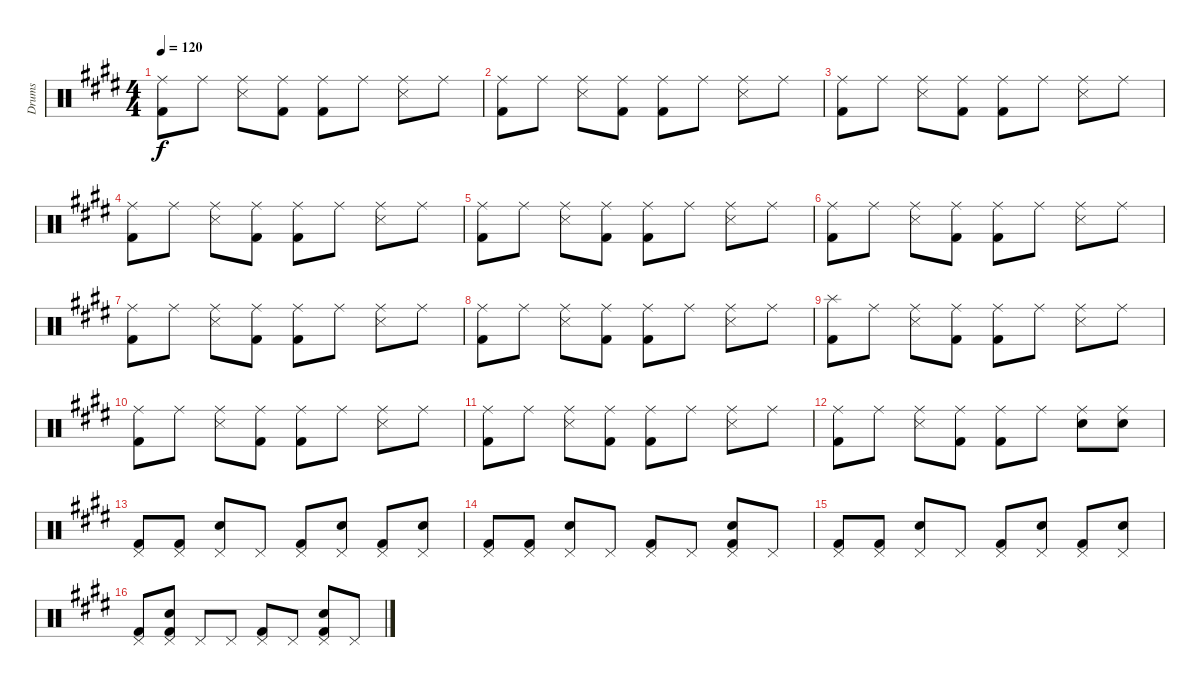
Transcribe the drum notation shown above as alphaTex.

\track ("Drums" "Drums") {instrument percussion}
\staff {score}
\articulation defaults
\ts (4 4)
\tempo 120
\clef neutral
\ks e
("Ride (middle)" "Kick (hit) 2").8{dy f} "Ride (middle)".8 ("Ride (middle)" "Snare (side stick) 3").8 ("Ride (middle)" "Kick (hit) 2").8 ("Ride (middle)" "Kick (hit) 2").8 "Ride (middle)".8 ("Ride (middle)" "Snare (side stick) 3").8 "Ride (middle)".8 |
("Ride (middle)" "Kick (hit) 2").8 "Ride (middle)".8 ("Ride (middle)" "Snare (side stick) 3").8 ("Ride (middle)" "Kick (hit) 2").8 ("Ride (middle)" "Kick (hit) 2").8 "Ride (middle)".8 ("Ride (middle)" "Snare (side stick) 3").8 "Ride (middle)".8 |
("Ride (middle)" "Kick (hit) 2").8 "Ride (middle)".8 ("Ride (middle)" "Snare (side stick) 3").8 ("Ride (middle)" "Kick (hit) 2").8 ("Ride (middle)" "Kick (hit) 2").8 "Ride (middle)".8 ("Ride (middle)" "Snare (side stick) 3").8 "Ride (middle)".8 |
("Ride (middle)" "Kick (hit) 2").8 "Ride (middle)".8 ("Ride (middle)" "Snare (side stick) 3").8 ("Ride (middle)" "Kick (hit) 2").8 ("Ride (middle)" "Kick (hit) 2").8 "Ride (middle)".8 ("Ride (middle)" "Snare (side stick) 3").8 "Ride (middle)".8 |
("Ride (middle)" "Kick (hit) 2").8 "Ride (middle)".8 ("Ride (middle)" "Snare (side stick) 3").8 ("Ride (middle)" "Kick (hit) 2").8 ("Ride (middle)" "Kick (hit) 2").8 "Ride (middle)".8 ("Ride (middle)" "Snare (side stick) 3").8 "Ride (middle)".8 |
("Ride (middle)" "Kick (hit) 2").8 "Ride (middle)".8 ("Ride (middle)" "Snare (side stick) 3").8 ("Ride (middle)" "Kick (hit) 2").8 ("Ride (middle)" "Kick (hit) 2").8 "Ride (middle)".8 ("Ride (middle)" "Snare (side stick) 3").8 "Ride (middle)".8 |
("Ride (middle)" "Kick (hit) 2").8 "Ride (middle)".8 ("Ride (middle)" "Snare (side stick) 3").8 ("Ride (middle)" "Kick (hit) 2").8 ("Ride (middle)" "Kick (hit) 2").8 "Ride (middle)".8 ("Ride (middle)" "Snare (side stick) 3").8 "Ride (middle)".8 |
("Ride (middle)" "Kick (hit) 2").8 "Ride (middle)".8 ("Ride (middle)" "Snare (side stick) 3").8 ("Ride (middle)" "Kick (hit) 2").8 ("Ride (middle)" "Kick (hit) 2").8 "Ride (middle)".8 ("Ride (middle)" "Snare (side stick) 3").8 "Ride (middle)".8 |
("Splash (hit)" "Kick (hit) 2").8 "Ride (middle)".8 ("Ride (middle)" "Snare (side stick) 3").8 ("Ride (middle)" "Kick (hit) 2").8 ("Ride (middle)" "Kick (hit) 2").8 "Ride (middle)".8 ("Ride (middle)" "Snare (side stick) 3").8 "Ride (middle)".8 |
("Ride (middle)" "Kick (hit) 2").8 "Ride (middle)".8 ("Ride (middle)" "Snare (side stick) 3").8 ("Ride (middle)" "Kick (hit) 2").8 ("Ride (middle)" "Kick (hit) 2").8 "Ride (middle)".8 ("Ride (middle)" "Snare (side stick) 3").8 "Ride (middle)".8 |
("Ride (middle)" "Kick (hit) 2").8 "Ride (middle)".8 ("Ride (middle)" "Snare (side stick) 3").8 ("Ride (middle)" "Kick (hit) 2").8 ("Ride (middle)" "Kick (hit) 2").8 "Ride (middle)".8 ("Ride (middle)" "Snare (side stick) 3").8 "Ride (middle)".8 |
("Ride (middle)" "Kick (hit) 2").8 "Ride (middle)".8 ("Ride (middle)" "Snare (side stick) 3").8 ("Ride (middle)" "Kick (hit) 2").8 ("Ride (middle)" "Kick (hit) 2").8 "Ride (middle)".8 ("Ride (middle)" "Snare (hit) 2").8 ("Ride (middle)" "Snare (hit) 2").8 |
("Pedal Hi-Hat (hit)" "Kick (hit) 2").8 ("Pedal Hi-Hat (hit)" "Kick (hit) 2").8 ("Pedal Hi-Hat (hit)" "Snare (hit) 2").8 "Pedal Hi-Hat (hit)".8 ("Pedal Hi-Hat (hit)" "Kick (hit) 2").8 ("Pedal Hi-Hat (hit)" "Snare (hit) 2").8 ("Pedal Hi-Hat (hit)" "Kick (hit) 2").8 ("Pedal Hi-Hat (hit)" "Snare (hit) 2").8 |
("Pedal Hi-Hat (hit)" "Kick (hit) 2").8 ("Pedal Hi-Hat (hit)" "Kick (hit) 2").8 ("Pedal Hi-Hat (hit)" "Snare (hit) 2").8 "Pedal Hi-Hat (hit)".8 ("Pedal Hi-Hat (hit)" "Kick (hit) 2").8 "Pedal Hi-Hat (hit)".8 ("Pedal Hi-Hat (hit)" "Snare (hit) 2" "Kick (hit) 2").8 "Pedal Hi-Hat (hit)".8 |
("Pedal Hi-Hat (hit)" "Kick (hit) 2").8 ("Pedal Hi-Hat (hit)" "Kick (hit) 2").8 ("Pedal Hi-Hat (hit)" "Snare (hit) 2").8 "Pedal Hi-Hat (hit)".8 ("Pedal Hi-Hat (hit)" "Kick (hit) 2").8 ("Pedal Hi-Hat (hit)" "Snare (hit) 2").8 ("Pedal Hi-Hat (hit)" "Kick (hit) 2").8 ("Pedal Hi-Hat (hit)" "Snare (hit) 2").8 |
("Pedal Hi-Hat (hit)" "Kick (hit) 2").8 ("Pedal Hi-Hat (hit)" "Snare (hit) 2" "Kick (hit) 2").8 "Pedal Hi-Hat (hit)".8 "Pedal Hi-Hat (hit)".8 ("Pedal Hi-Hat (hit)" "Kick (hit) 2").8 "Pedal Hi-Hat (hit)".8 ("Pedal Hi-Hat (hit)" "Snare (hit) 2" "Kick (hit) 2").8 "Pedal Hi-Hat (hit)".8
